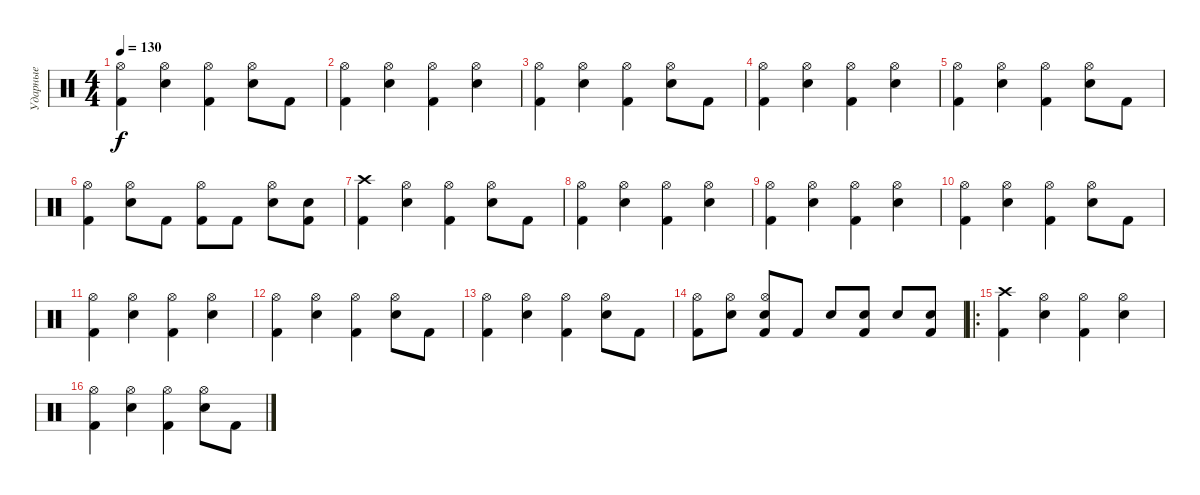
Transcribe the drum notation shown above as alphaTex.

\track ("Ударные" "Ударные") {instrument percussion}
\staff
\articulation defaults
\ts (4 4)
\tempo 130
\clef neutral
\ks c
("Kick (hit) 2" "Hi-Hat (open)").4{dy f} ("Snare (hit) 2" "Hi-Hat (open)").4 ("Kick (hit) 2" "Hi-Hat (open)").4 ("Snare (hit) 2" "Hi-Hat (open)").8 "Kick (hit) 2".8 |
("Kick (hit) 2" "Hi-Hat (open)").4 ("Snare (hit) 2" "Hi-Hat (open)").4 ("Kick (hit) 2" "Hi-Hat (open)").4 ("Snare (hit) 2" "Hi-Hat (open)").4 |
("Kick (hit) 2" "Hi-Hat (open)").4 ("Snare (hit) 2" "Hi-Hat (open)").4 ("Kick (hit) 2" "Hi-Hat (open)").4 ("Snare (hit) 2" "Hi-Hat (open)").8 "Kick (hit) 2".8 |
("Kick (hit) 2" "Hi-Hat (open)").4 ("Snare (hit) 2" "Hi-Hat (open)").4 ("Kick (hit) 2" "Hi-Hat (open)").4 ("Snare (hit) 2" "Hi-Hat (open)").4 |
("Kick (hit) 2" "Hi-Hat (open)").4 ("Snare (hit) 2" "Hi-Hat (open)").4 ("Kick (hit) 2" "Hi-Hat (open)").4 ("Snare (hit) 2" "Hi-Hat (open)").8 "Kick (hit) 2".8 |
("Kick (hit) 2" "Hi-Hat (open)").4 ("Snare (hit) 2" "Hi-Hat (open)").8 "Kick (hit) 2".8 ("Kick (hit) 2" "Hi-Hat (open)").8 "Kick (hit) 2".8 ("Snare (hit) 2" "Hi-Hat (open)").8 ("Kick (hit) 2" "Snare (hit) 2").8 |
("Kick (hit) 2" "Crash high (hit)").4 ("Snare (hit) 2" "Hi-Hat (open)").4 ("Kick (hit) 2" "Hi-Hat (open)").4 ("Snare (hit) 2" "Hi-Hat (open)").8 "Kick (hit) 2".8 |
("Kick (hit) 2" "Hi-Hat (open)").4 ("Snare (hit) 2" "Hi-Hat (open)").4 ("Kick (hit) 2" "Hi-Hat (open)").4 ("Snare (hit) 2" "Hi-Hat (open)").4 |
("Kick (hit) 2" "Hi-Hat (open)").4 ("Snare (hit) 2" "Hi-Hat (open)").4 ("Kick (hit) 2" "Hi-Hat (open)").4 ("Snare (hit) 2" "Hi-Hat (open)").4 |
("Kick (hit) 2" "Hi-Hat (open)").4 ("Snare (hit) 2" "Hi-Hat (open)").4 ("Kick (hit) 2" "Hi-Hat (open)").4 ("Snare (hit) 2" "Hi-Hat (open)").8 "Kick (hit) 2".8 |
("Kick (hit) 2" "Hi-Hat (open)").4 ("Snare (hit) 2" "Hi-Hat (open)").4 ("Kick (hit) 2" "Hi-Hat (open)").4 ("Snare (hit) 2" "Hi-Hat (open)").4 |
("Kick (hit) 2" "Hi-Hat (open)").4 ("Snare (hit) 2" "Hi-Hat (open)").4 ("Kick (hit) 2" "Hi-Hat (open)").4 ("Snare (hit) 2" "Hi-Hat (open)").8 "Kick (hit) 2".8 |
("Kick (hit) 2" "Hi-Hat (open)").4 ("Snare (hit) 2" "Hi-Hat (open)").4 ("Kick (hit) 2" "Hi-Hat (open)").4 ("Snare (hit) 2" "Hi-Hat (open)").8 "Kick (hit) 2".8 |
("Kick (hit) 2" "Hi-Hat (open)").8 ("Snare (hit) 2" "Hi-Hat (open)").8 ("Kick (hit) 2" "Snare (hit) 2" "Hi-Hat (open)").8 "Kick (hit) 2".8 "Snare (hit) 2".8 ("Kick (hit) 2" "Electric Snare (hit)").8 "Snare (hit) 2".8 ("Kick (hit) 2" "Electric Snare (hit)").8 |
\ro
("Kick (hit) 2" "Crash high (hit)").4 ("Snare (hit) 2" "Hi-Hat (open)").4 ("Kick (hit) 2" "Hi-Hat (open)").4 ("Snare (hit) 2" "Hi-Hat (open)").4 |
("Kick (hit) 2" "Hi-Hat (open)").4 ("Snare (hit) 2" "Hi-Hat (open)").4 ("Kick (hit) 2" "Hi-Hat (open)").4 ("Snare (hit) 2" "Hi-Hat (open)").8 "Kick (hit) 2".8
